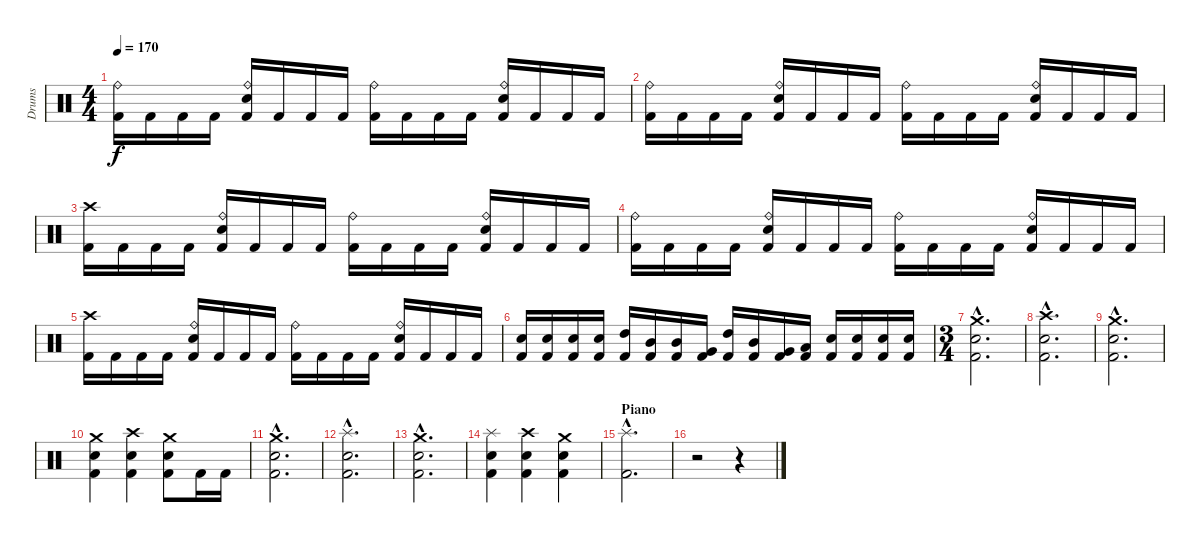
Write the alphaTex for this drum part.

\track ("Drums" "Drums") {instrument percussion}
\staff {score}
\articulation defaults
\ts (4 4)
\tempo 170
\clef neutral
\ks c
("Kick (hit) 2" "Ride (bell)").16{dy f} "Kick (hit) 2".16 "Kick (hit) 2".16 "Kick (hit) 2".16 ("Kick (hit) 2" "Snare (hit) 2" "Ride (bell)").16 "Kick (hit) 2".16 "Kick (hit) 2".16 "Kick (hit) 2".16 ("Kick (hit) 2" "Ride (bell)").16 "Kick (hit) 2".16 "Kick (hit) 2".16 "Kick (hit) 2".16 ("Kick (hit) 2" "Snare (hit) 2" "Ride (bell)").16 "Kick (hit) 2".16 "Kick (hit) 2".16 "Kick (hit) 2".16 |
("Kick (hit) 2" "Ride (bell)").16 "Kick (hit) 2".16 "Kick (hit) 2".16 "Kick (hit) 2".16 ("Kick (hit) 2" "Snare (hit) 2" "Ride (bell)").16 "Kick (hit) 2".16 "Kick (hit) 2".16 "Kick (hit) 2".16 ("Kick (hit) 2" "Ride (bell)").16 "Kick (hit) 2".16 "Kick (hit) 2".16 "Kick (hit) 2".16 ("Kick (hit) 2" "Snare (hit) 2" "Ride (bell)").16 "Kick (hit) 2".16 "Kick (hit) 2".16 "Kick (hit) 2".16 |
("Kick (hit) 2" "Crash high (hit)").16 "Kick (hit) 2".16 "Kick (hit) 2".16 "Kick (hit) 2".16 ("Kick (hit) 2" "Snare (hit) 2" "Ride (bell)").16 "Kick (hit) 2".16 "Kick (hit) 2".16 "Kick (hit) 2".16 ("Kick (hit) 2" "Ride (bell)").16 "Kick (hit) 2".16 "Kick (hit) 2".16 "Kick (hit) 2".16 ("Kick (hit) 2" "Snare (hit) 2" "Ride (bell)").16 "Kick (hit) 2".16 "Kick (hit) 2".16 "Kick (hit) 2".16 |
("Kick (hit) 2" "Ride (bell)").16 "Kick (hit) 2".16 "Kick (hit) 2".16 "Kick (hit) 2".16 ("Kick (hit) 2" "Snare (hit) 2" "Ride (bell)").16 "Kick (hit) 2".16 "Kick (hit) 2".16 "Kick (hit) 2".16 ("Kick (hit) 2" "Ride (bell)").16 "Kick (hit) 2".16 "Kick (hit) 2".16 "Kick (hit) 2".16 ("Kick (hit) 2" "Snare (hit) 2" "Ride (bell)").16 "Kick (hit) 2".16 "Kick (hit) 2".16 "Kick (hit) 2".16 |
("Kick (hit) 2" "Crash high (hit)").16 "Kick (hit) 2".16 "Kick (hit) 2".16 "Kick (hit) 2".16 ("Kick (hit) 2" "Snare (hit) 2" "Ride (bell)").16 "Kick (hit) 2".16 "Kick (hit) 2".16 "Kick (hit) 2".16 ("Kick (hit) 2" "Ride (bell)").16 "Kick (hit) 2".16 "Kick (hit) 2".16 "Kick (hit) 2".16 ("Kick (hit) 2" "Snare (hit) 2" "Ride (bell)").16 "Kick (hit) 2".16 "Kick (hit) 2".16 "Kick (hit) 2".16 |
("Kick (hit) 2" "Snare (hit) 2").16 ("Kick (hit) 2" "Snare (hit) 2").16 ("Kick (hit) 2" "Snare (hit) 2").16 ("Kick (hit) 2" "Snare (hit) 2").16 ("Kick (hit) 2" "High Tom (hit)").16 ("Kick (hit) 2" "Mid Tom (hit)").16 ("Kick (hit) 2" "Mid Tom (hit)").16 ("Kick (hit) 2" "Very Low Tom (hit)").16 ("Kick (hit) 2" "High Tom (hit)").16 ("Kick (hit) 2" "Mid Tom (hit)").16 ("Kick (hit) 2" "Very Low Tom (hit)").16 ("Kick (hit) 2" "Low Floor Tom (hit)").16 ("Kick (hit) 2" "Snare (hit) 2").16 ("Kick (hit) 2" "Snare (hit) 2").16 ("Kick (hit) 2" "Snare (hit) 2").16 ("Kick (hit) 2" "Snare (hit) 2").16 |
\ts (3 4)
\section ("" "")
("Kick (hit) 2"{hac} "Snare (hit) 2"{hac} "Crash medium (hit)"{hac}).2{d} |
("Kick (hit) 2"{hac} "Snare (hit) 2"{hac} "Crash high (hit)"{hac}).2{d} |
("Kick (hit) 2"{hac} "Snare (hit) 2"{hac} "Crash medium (hit)"{hac}).2{d} |
("Kick (hit) 2" "Snare (hit) 2" "Crash medium (hit)").4 ("Kick (hit) 2" "Snare (hit) 2" "Crash high (hit)").4 ("Kick (hit) 2" "Snare (hit) 2" "Crash medium (hit)").8 "Kick (hit) 2".16 "Kick (hit) 2".16 |
("Kick (hit) 2"{hac} "Snare (hit) 2"{hac} "Crash medium (hit)"{hac}).2{d} |
("Kick (hit) 2"{hac} "Snare (hit) 2"{hac} "Splash (hit)"{hac}).2{d} |
("Kick (hit) 2"{hac} "Snare (hit) 2"{hac} "Crash medium (hit)"{hac}).2{d} |
("Kick (hit) 2" "Snare (hit) 2" "Splash (hit)").4 ("Kick (hit) 2" "Snare (hit) 2" "Crash high (hit)").4 ("Kick (hit) 2" "Snare (hit) 2" "Crash medium (hit)").4 |
\section ("" "Piano")
("Kick (hit) 2"{hac} "Splash (hit)"{hac}).2{d} |
r.2 r.4
